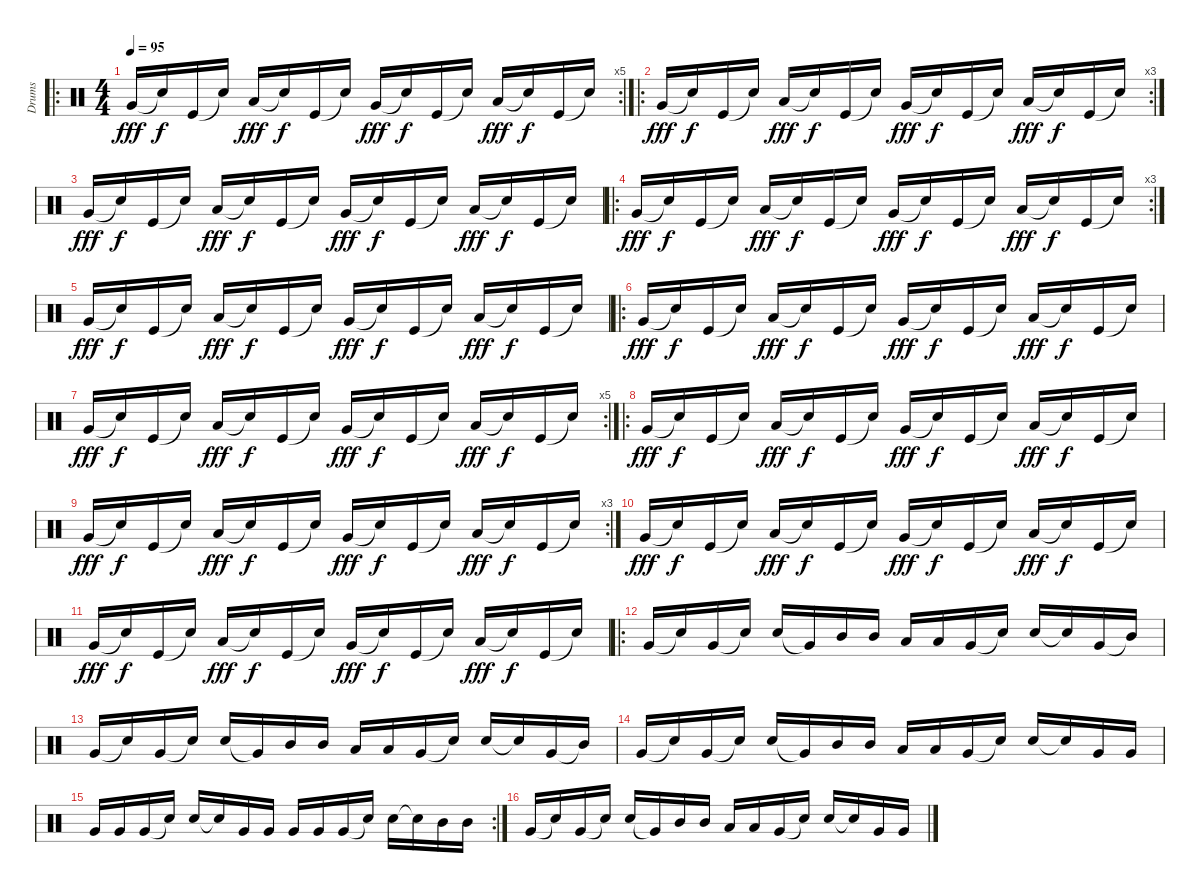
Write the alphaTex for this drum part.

\track ("Drums" "Drums") {instrument percussion}
\staff {score}
\articulation defaults
\ro
\rc 5
\ts (4 4)
\tempo 95
\clef neutral
\ks c "Very Low Tom (hit)".16{dy fff} "Snare (hit)"{t}.16{dy f} "Kick (hit)".16 "Snare (hit)"{t}.16 "Low Floor Tom (hit)".16{dy fff} "Snare (hit)"{t}.16{dy f} "Kick (hit)".16 "Snare (hit)"{t}.16 "Very Low Tom (hit)".16{dy fff} "Snare (hit)"{t}.16{dy f} "Kick (hit)".16 "Snare (hit)"{t}.16 "Low Floor Tom (hit)".16{dy fff} "Snare (hit)"{t}.16{dy f} "Kick (hit)".16 "Snare (hit)"{t}.16
|
\ro
\rc 3 "Very Low Tom (hit)".16{dy fff} "Snare (hit)"{t}.16{dy f} "Kick (hit)".16 "Snare (hit)"{t}.16 "Low Floor Tom (hit)".16{dy fff} "Snare (hit)"{t}.16{dy f} "Kick (hit)".16 "Snare (hit)"{t}.16 "Very Low Tom (hit)".16{dy fff} "Snare (hit)"{t}.16{dy f} "Kick (hit)".16 "Snare (hit)"{t}.16 "Low Floor Tom (hit)".16{dy fff} "Snare (hit)"{t}.16{dy f} "Kick (hit)".16 "Snare (hit)"{t}.16
|
"Very Low Tom (hit)".16{dy fff} "Snare (hit)"{t}.16{dy f} "Kick (hit)".16 "Snare (hit)"{t}.16 "Low Floor Tom (hit)".16{dy fff} "Snare (hit)"{t}.16{dy f} "Kick (hit)".16 "Snare (hit)"{t}.16 "Very Low Tom (hit)".16{dy fff} "Snare (hit)"{t}.16{dy f} "Kick (hit)".16 "Snare (hit)"{t}.16 "Low Floor Tom (hit)".16{dy fff} "Snare (hit)"{t}.16{dy f} "Kick (hit)".16 "Snare (hit)"{t}.16 |
\ro
\rc 3 "Very Low Tom (hit)".16{dy fff} "Snare (hit)"{t}.16{dy f} "Kick (hit)".16 "Snare (hit)"{t}.16 "Low Floor Tom (hit)".16{dy fff} "Snare (hit)"{t}.16{dy f} "Kick (hit)".16 "Snare (hit)"{t}.16 "Very Low Tom (hit)".16{dy fff} "Snare (hit)"{t}.16{dy f} "Kick (hit)".16 "Snare (hit)"{t}.16 "Low Floor Tom (hit)".16{dy fff} "Snare (hit)"{t}.16{dy f} "Kick (hit)".16 "Snare (hit)"{t}.16
|
"Very Low Tom (hit)".16{dy fff} "Snare (hit)"{t}.16{dy f} "Kick (hit)".16 "Snare (hit)"{t}.16 "Low Floor Tom (hit)".16{dy fff} "Snare (hit)"{t}.16{dy f} "Kick (hit)".16 "Snare (hit)"{t}.16 "Very Low Tom (hit)".16{dy fff} "Snare (hit)"{t}.16{dy f} "Kick (hit)".16 "Snare (hit)"{t}.16 "Low Floor Tom (hit)".16{dy fff} "Snare (hit)"{t}.16{dy f} "Kick (hit)".16 "Snare (hit)"{t}.16 |
\ro "Very Low Tom (hit)".16{dy fff} "Snare (hit)"{t}.16{dy f} "Kick (hit)".16 "Snare (hit)"{t}.16 "Low Floor Tom (hit)".16{dy fff} "Snare (hit)"{t}.16{dy f} "Kick (hit)".16 "Snare (hit)"{t}.16 "Very Low Tom (hit)".16{dy fff} "Snare (hit)"{t}.16{dy f} "Kick (hit)".16 "Snare (hit)"{t}.16 "Low Floor Tom (hit)".16{dy fff} "Snare (hit)"{t}.16{dy f} "Kick (hit)".16 "Snare (hit)"{t}.16
|
\rc 5 "Very Low Tom (hit)".16{dy fff} "Snare (hit)"{t}.16{dy f} "Kick (hit)".16 "Snare (hit)"{t}.16 "Low Floor Tom (hit)".16{dy fff} "Snare (hit)"{t}.16{dy f} "Kick (hit)".16 "Snare (hit)"{t}.16 "Very Low Tom (hit)".16{dy fff} "Snare (hit)"{t}.16{dy f} "Kick (hit)".16 "Snare (hit)"{t}.16 "Low Floor Tom (hit)".16{dy fff} "Snare (hit)"{t}.16{dy f} "Kick (hit)".16 "Snare (hit)"{t}.16
|
\ro "Very Low Tom (hit)".16{dy fff} "Snare (hit)"{t}.16{dy f} "Kick (hit)".16 "Snare (hit)"{t}.16 "Low Floor Tom (hit)".16{dy fff} "Snare (hit)"{t}.16{dy f} "Kick (hit)".16 "Snare (hit)"{t}.16 "Very Low Tom (hit)".16{dy fff} "Snare (hit)"{t}.16{dy f} "Kick (hit)".16 "Snare (hit)"{t}.16 "Low Floor Tom (hit)".16{dy fff} "Snare (hit)"{t}.16{dy f} "Kick (hit)".16 "Snare (hit)"{t}.16
|
\rc 3 "Very Low Tom (hit)".16{dy fff} "Snare (hit)"{t}.16{dy f} "Kick (hit)".16 "Snare (hit)"{t}.16 "Low Floor Tom (hit)".16{dy fff} "Snare (hit)"{t}.16{dy f} "Kick (hit)".16 "Snare (hit)"{t}.16 "Very Low Tom (hit)".16{dy fff} "Snare (hit)"{t}.16{dy f} "Kick (hit)".16 "Snare (hit)"{t}.16 "Low Floor Tom (hit)".16{dy fff} "Snare (hit)"{t}.16{dy f} "Kick (hit)".16 "Snare (hit)"{t}.16
|
"Very Low Tom (hit)".16{dy fff} "Snare (hit)"{t}.16{dy f} "Kick (hit)".16 "Snare (hit)"{t}.16 "Low Floor Tom (hit)".16{dy fff} "Snare (hit)"{t}.16{dy f} "Kick (hit)".16 "Snare (hit)"{t}.16 "Very Low Tom (hit)".16{dy fff} "Snare (hit)"{t}.16{dy f} "Kick (hit)".16 "Snare (hit)"{t}.16 "Low Floor Tom (hit)".16{dy fff} "Snare (hit)"{t}.16{dy f} "Kick (hit)".16 "Snare (hit)"{t}.16 |
"Very Low Tom (hit)".16{dy fff} "Snare (hit)"{t}.16{dy f} "Kick (hit)".16 "Snare (hit)"{t}.16 "Low Floor Tom (hit)".16{dy fff} "Snare (hit)"{t}.16{dy f} "Kick (hit)".16 "Snare (hit)"{t}.16 "Very Low Tom (hit)".16{dy fff} "Snare (hit)"{t}.16{dy f} "Kick (hit)".16 "Snare (hit)"{t}.16 "Low Floor Tom (hit)".16{dy fff} "Snare (hit)"{t}.16{dy f} "Kick (hit)".16 "Snare (hit)"{t}.16 |
\ro "Very Low Tom (hit)".16 "Snare (hit)"{t}.16 "Very Low Tom (hit)".16 "Snare (hit)"{t}.16 "Snare (hit) 2".16 "Very Low Tom (hit)"{t}.16 "Mid Tom (hit)".16 "Mid Tom (hit)".16 "Low Tom (hit)".16 "Low Tom (hit)".16 "Very Low Tom (hit)".16 "Snare (hit)"{t}.16 "Snare (hit) 2".16 "Snare (hit)"{t}.16 "Very Low Tom (hit)".16 "Mid Tom (hit)"{t}.16
|
"Very Low Tom (hit)".16 "Snare (hit)"{t}.16 "Very Low Tom (hit)".16 "Snare (hit)"{t}.16 "Snare (hit) 2".16 "Very Low Tom (hit)"{t}.16 "Mid Tom (hit)".16 "Mid Tom (hit)".16 "Low Tom (hit)".16 "Low Tom (hit)".16 "Very Low Tom (hit)".16 "Snare (hit)"{t}.16 "Snare (hit) 2".16 "Snare (hit)"{t}.16 "Very Low Tom (hit)".16 "Mid Tom (hit)"{t}.16 |
"Very Low Tom (hit)".16 "Snare (hit)"{t}.16 "Very Low Tom (hit)".16 "Snare (hit)"{t}.16 "Snare (hit) 2".16 "Very Low Tom (hit)"{t}.16 "Mid Tom (hit)".16 "Mid Tom (hit)".16 "Low Tom (hit)".16 "Low Tom (hit)".16 "Very Low Tom (hit)".16 "Snare (hit)"{t}.16 "Snare (hit) 2".16 "Snare (hit)"{t}.16 "Very Low Tom (hit)".16 "Very Low Tom (hit)".16 |
\rc 2 "Very Low Tom (hit)".16 "Very Low Tom (hit)".16 "Very Low Tom (hit)".16 "Snare (hit)"{t}.16 "Snare (hit) 2".16 "Snare (hit)"{t}.16 "Very Low Tom (hit)".16 "Very Low Tom (hit)".16 "Very Low Tom (hit)".16 "Very Low Tom (hit)".16 "Very Low Tom (hit)".16 "Snare (hit)"{t}.16 "Snare (hit) 2".16 "Snare (hit)"{t}.16 "Mid Tom (hit)".16 "Mid Tom (hit)".16
|
"Very Low Tom (hit)".16 "Snare (hit)"{t}.16 "Very Low Tom (hit)".16 "Snare (hit)"{t}.16 "Snare (hit) 2".16 "Very Low Tom (hit)"{t}.16 "Mid Tom (hit)".16 "Mid Tom (hit)".16 "Low Tom (hit)".16 "Low Tom (hit)".16 "Very Low Tom (hit)".16 "Snare (hit)"{t}.16 "Snare (hit) 2".16 "Snare (hit)"{t}.16 "Very Low Tom (hit)".16 "Very Low Tom (hit)".16
